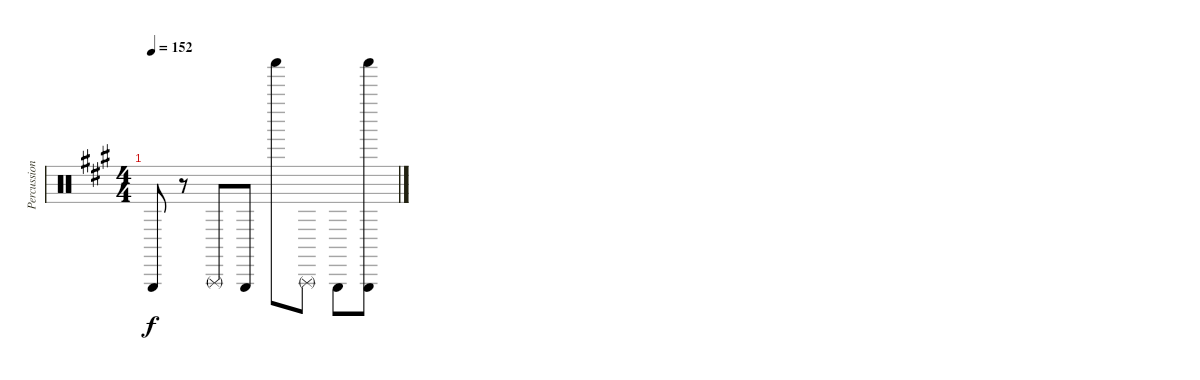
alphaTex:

\track ("Percussions" "Percussion") {instrument percussion}
\staff {score}
\articulation defaults
\ts (4 4)
\tempo 152
\clef neutral
\ks a "Triangle (hit)".8{dy f}
r.8 "Triangle (rnute)".8 "Triangle (hit)".8 "Shaker (hit)".8 "Triangle (rnute)".8 "Triangle (hit)".8 ("Triangle (hit)" "Shaker (hit)").8
